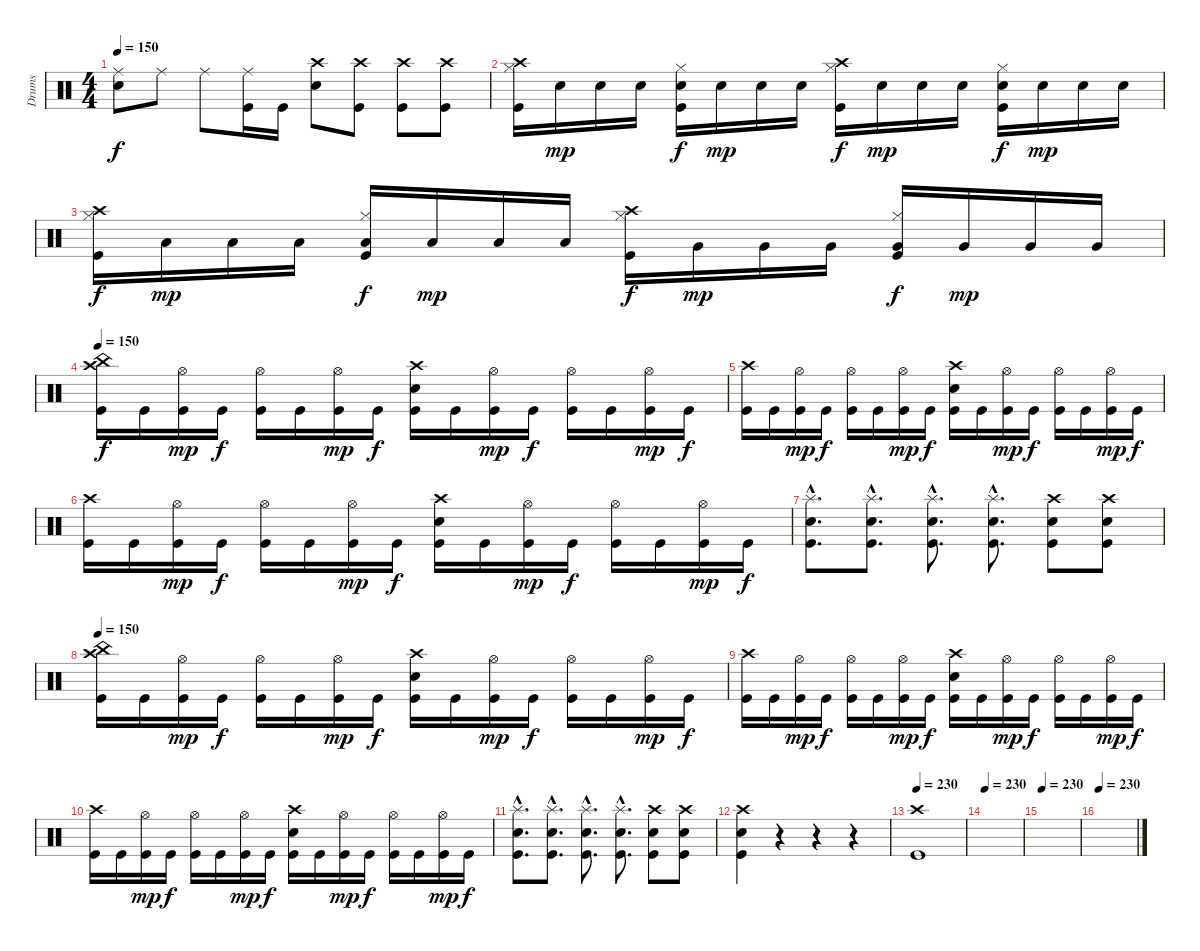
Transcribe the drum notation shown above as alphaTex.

\track ("Drums" "Drums") {instrument percussion}
\staff {score}
\articulation defaults
\ts (4 4)
\tempo 150
\clef neutral
\ks c
("Ride (middle)" "Electric Snare (hit)").8{dy f} "Ride (middle)".8 "Ride (middle)".8 ("Ride (middle)" "Kick (hit)").16 "Kick (hit)".16 ("Crash high (hit)" "Electric Snare (hit)").8 ("Crash high (hit)" "Kick (hit)").8 ("Crash high (hit)" "Kick (hit)").8 ("Crash high (hit)" "Kick (hit)").8 |
("Crash high (hit)" "Hi-Hat (closed)" "Kick (hit)").16 "Electric Snare (hit)".16{dy mp} "Electric Snare (hit)".16 "Electric Snare (hit)".16 ("Hi-Hat (closed)" "Electric Snare (hit)" "Kick (hit)").16{dy f} "Electric Snare (hit)".16{dy mp} "Electric Snare (hit)".16 "Electric Snare (hit)".16 ("Crash high (hit)" "Hi-Hat (closed)" "Kick (hit)").16{dy f} "Electric Snare (hit)".16{dy mp} "Electric Snare (hit)".16 "Electric Snare (hit)".16 ("Hi-Hat (closed)" "Electric Snare (hit)" "Kick (hit)").16{dy f} "Electric Snare (hit)".16{dy mp} "Electric Snare (hit)".16 "Electric Snare (hit)".16 |
("Crash high (hit)" "Hi-Hat (closed)" "Kick (hit)").16{dy f} "Low Tom (hit)".16{dy mp} "Low Tom (hit)".16 "Low Tom (hit)".16 ("Hi-Hat (closed)" "Low Tom (hit)" "Kick (hit)").16{dy f} "Low Tom (hit)".16{dy mp} "Low Tom (hit)".16 "Low Tom (hit)".16 ("Crash high (hit)" "Hi-Hat (closed)" "Kick (hit)").16{dy f} "Very Low Tom (hit)".16{dy mp} "Very Low Tom (hit)".16 "Very Low Tom (hit)".16 ("Hi-Hat (closed)" "Very Low Tom (hit)" "Kick (hit)").16{dy f} "Very Low Tom (hit)".16{dy mp} "Very Low Tom (hit)".16 "Very Low Tom (hit)".16 |
\tempo 150
("Crash high (hit)" "China (hit)" "Kick (hit)").16{dy f} "Kick (hit)".16 ("Hi-Hat (open)" "Kick (hit)").16{dy mp} "Kick (hit)".16{dy f} ("Hi-Hat (open)" "Kick (hit)").16 "Kick (hit)".16 ("Hi-Hat (open)" "Kick (hit)").16{dy mp} "Kick (hit)".16{dy f} ("Crash high (hit)" "Electric Snare (hit)" "Kick (hit)").16 "Kick (hit)".16 ("Hi-Hat (open)" "Kick (hit)").16{dy mp} "Kick (hit)".16{dy f} ("Hi-Hat (open)" "Kick (hit)").16 "Kick (hit)".16 ("Hi-Hat (open)" "Kick (hit)").16{dy mp} "Kick (hit)".16{dy f} |
("Crash high (hit)" "Kick (hit)").16 "Kick (hit)".16 ("Hi-Hat (open)" "Kick (hit)").16{dy mp} "Kick (hit)".16{dy f} ("Hi-Hat (open)" "Kick (hit)").16 "Kick (hit)".16 ("Hi-Hat (open)" "Kick (hit)").16{dy mp} "Kick (hit)".16{dy f} ("Crash high (hit)" "Electric Snare (hit)" "Kick (hit)").16 "Kick (hit)".16 ("Hi-Hat (open)" "Kick (hit)").16{dy mp} "Kick (hit)".16{dy f} ("Hi-Hat (open)" "Kick (hit)").16 "Kick (hit)".16 ("Hi-Hat (open)" "Kick (hit)").16{dy mp} "Kick (hit)".16{dy f} |
("Crash high (hit)" "Kick (hit)").16 "Kick (hit)".16 ("Hi-Hat (open)" "Kick (hit)").16{dy mp} "Kick (hit)".16{dy f} ("Hi-Hat (open)" "Kick (hit)").16 "Kick (hit)".16 ("Hi-Hat (open)" "Kick (hit)").16{dy mp} "Kick (hit)".16{dy f} ("Crash high (hit)" "Electric Snare (hit)" "Kick (hit)").16 "Kick (hit)".16 ("Hi-Hat (open)" "Kick (hit)").16{dy mp} "Kick (hit)".16{dy f} ("Hi-Hat (open)" "Kick (hit)").16 "Kick (hit)".16 ("Hi-Hat (open)" "Kick (hit)").16{dy mp} "Kick (hit)".16{dy f} |
("Splash (hit)"{hac} "Electric Snare (hit)"{hac} "Kick (hit)"{hac}).8{d} ("Splash (hit)"{hac} "Electric Snare (hit)"{hac} "Kick (hit)"{hac}).8{d} ("Splash (hit)"{hac} "Electric Snare (hit)"{hac} "Kick (hit)"{hac}).8{d} ("Splash (hit)"{hac} "Electric Snare (hit)"{hac} "Kick (hit)"{hac}).8{d} ("Crash high (hit)" "Electric Snare (hit)" "Kick (hit)").8 ("Crash high (hit)" "Electric Snare (hit)" "Kick (hit)").8 |
\tempo 150
("Crash high (hit)" "China (hit)" "Kick (hit)").16 "Kick (hit)".16 ("Hi-Hat (open)" "Kick (hit)").16{dy mp} "Kick (hit)".16{dy f} ("Hi-Hat (open)" "Kick (hit)").16 "Kick (hit)".16 ("Hi-Hat (open)" "Kick (hit)").16{dy mp} "Kick (hit)".16{dy f} ("Crash high (hit)" "Electric Snare (hit)" "Kick (hit)").16 "Kick (hit)".16 ("Hi-Hat (open)" "Kick (hit)").16{dy mp} "Kick (hit)".16{dy f} ("Hi-Hat (open)" "Kick (hit)").16 "Kick (hit)".16 ("Hi-Hat (open)" "Kick (hit)").16{dy mp} "Kick (hit)".16{dy f} |
("Crash high (hit)" "Kick (hit)").16 "Kick (hit)".16 ("Hi-Hat (open)" "Kick (hit)").16{dy mp} "Kick (hit)".16{dy f} ("Hi-Hat (open)" "Kick (hit)").16 "Kick (hit)".16 ("Hi-Hat (open)" "Kick (hit)").16{dy mp} "Kick (hit)".16{dy f} ("Crash high (hit)" "Electric Snare (hit)" "Kick (hit)").16 "Kick (hit)".16 ("Hi-Hat (open)" "Kick (hit)").16{dy mp} "Kick (hit)".16{dy f} ("Hi-Hat (open)" "Kick (hit)").16 "Kick (hit)".16 ("Hi-Hat (open)" "Kick (hit)").16{dy mp} "Kick (hit)".16{dy f} |
("Crash high (hit)" "Kick (hit)").16 "Kick (hit)".16 ("Hi-Hat (open)" "Kick (hit)").16{dy mp} "Kick (hit)".16{dy f} ("Hi-Hat (open)" "Kick (hit)").16 "Kick (hit)".16 ("Hi-Hat (open)" "Kick (hit)").16{dy mp} "Kick (hit)".16{dy f} ("Crash high (hit)" "Electric Snare (hit)" "Kick (hit)").16 "Kick (hit)".16 ("Hi-Hat (open)" "Kick (hit)").16{dy mp} "Kick (hit)".16{dy f} ("Hi-Hat (open)" "Kick (hit)").16 "Kick (hit)".16 ("Hi-Hat (open)" "Kick (hit)").16{dy mp} "Kick (hit)".16{dy f} |
("Splash (hit)"{hac} "Electric Snare (hit)"{hac} "Kick (hit)"{hac}).8{d} ("Splash (hit)"{hac} "Electric Snare (hit)"{hac} "Kick (hit)"{hac}).8{d} ("Splash (hit)"{hac} "Electric Snare (hit)"{hac} "Kick (hit)"{hac}).8{d} ("Splash (hit)"{hac} "Electric Snare (hit)"{hac} "Kick (hit)"{hac}).8{d} ("Crash high (hit)" "Electric Snare (hit)" "Kick (hit)").8 ("Crash high (hit)" "Electric Snare (hit)" "Kick (hit)").8 |
("Crash high (hit)" "Electric Snare (hit)" "Kick (hit)").4 r.4 r.4 r.4 |
\tempo 230
("Crash high (hit)" "Kick (hit)").1 |
\tempo 230
|
\tempo 230
|
\tempo 230
